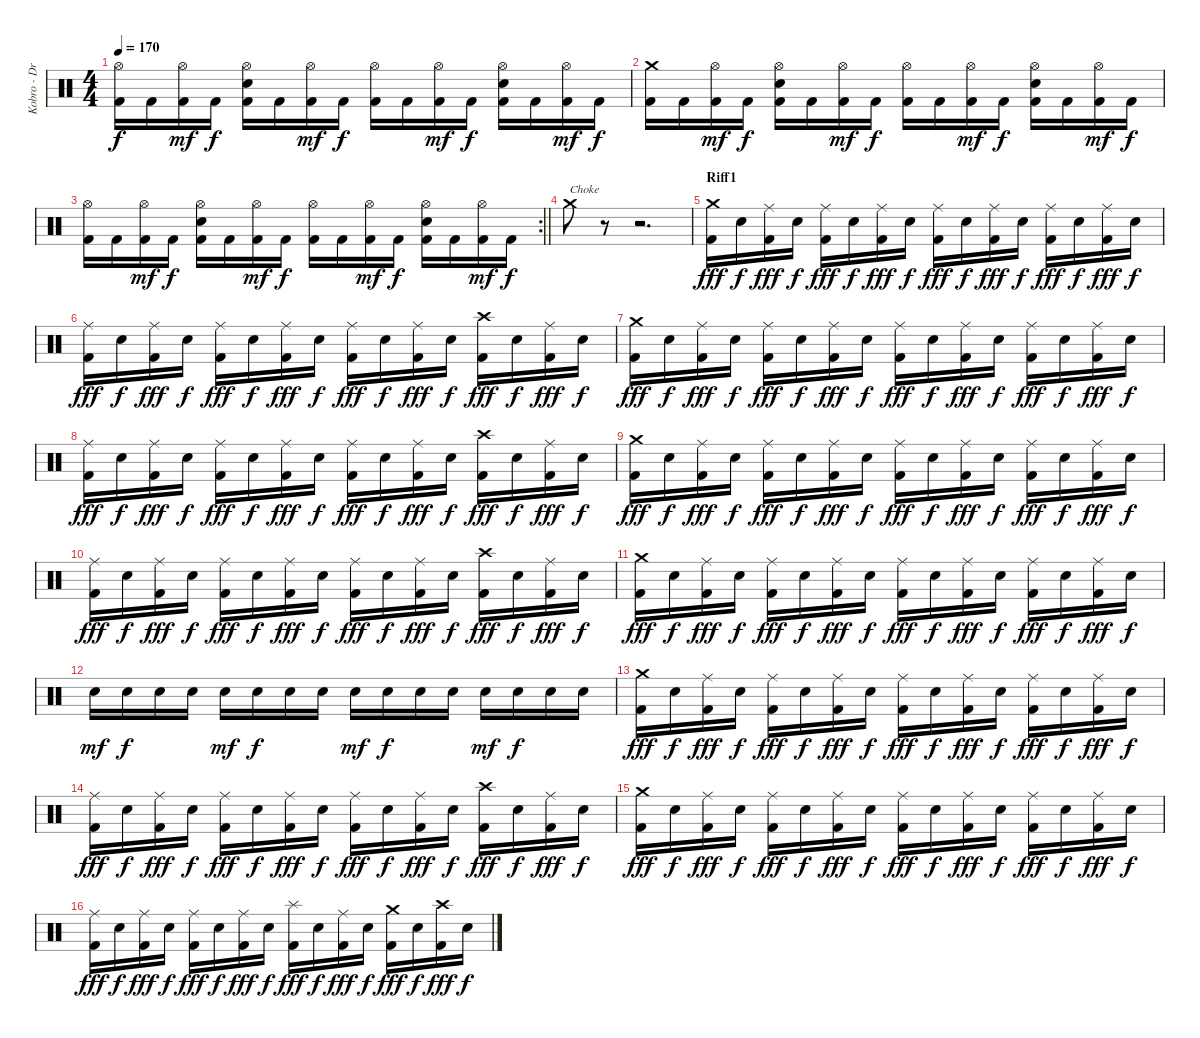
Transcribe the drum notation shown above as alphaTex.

\track ("Kobro - Drums + Percussion" "Kobro - Dr") {instrument percussion}
\staff {score}
\articulation defaults
\ts (4 4)
\tempo 170
\clef neutral
\ks c
("Hi-Hat (open)" "Kick (hit) 2").16{dy f} "Kick (hit) 2".16 ("Hi-Hat (open)" "Kick (hit) 2").16{dy mf} "Kick (hit) 2".16{dy f} ("Hi-Hat (open)" "Electric Snare (hit)" "Kick (hit) 2").16 "Kick (hit) 2".16 ("Hi-Hat (open)" "Kick (hit) 2").16{dy mf} "Kick (hit) 2".16{dy f} ("Hi-Hat (open)" "Kick (hit) 2").16 "Kick (hit) 2".16 ("Hi-Hat (open)" "Kick (hit) 2").16{dy mf} "Kick (hit) 2".16{dy f} ("Hi-Hat (open)" "Electric Snare (hit)" "Kick (hit) 2").16 "Kick (hit) 2".16 ("Hi-Hat (open)" "Kick (hit) 2").16{dy mf} "Kick (hit) 2".16{dy f} |
("Crash medium (hit)" "Kick (hit) 2").16 "Kick (hit) 2".16 ("Hi-Hat (open)" "Kick (hit) 2").16{dy mf} "Kick (hit) 2".16{dy f} ("Hi-Hat (open)" "Electric Snare (hit)" "Kick (hit) 2").16 "Kick (hit) 2".16 ("Hi-Hat (open)" "Kick (hit) 2").16{dy mf} "Kick (hit) 2".16{dy f} ("Hi-Hat (open)" "Kick (hit) 2").16 "Kick (hit) 2".16 ("Hi-Hat (open)" "Kick (hit) 2").16{dy mf} "Kick (hit) 2".16{dy f} ("Hi-Hat (open)" "Electric Snare (hit)" "Kick (hit) 2").16 "Kick (hit) 2".16 ("Hi-Hat (open)" "Kick (hit) 2").16{dy mf} "Kick (hit) 2".16{dy f} |
\rc 2
\barLineRight lightlight
("Hi-Hat (open)" "Kick (hit) 2").16 "Kick (hit) 2".16 ("Hi-Hat (open)" "Kick (hit) 2").16{dy mf} "Kick (hit) 2".16{dy f} ("Hi-Hat (open)" "Electric Snare (hit)" "Kick (hit) 2").16 "Kick (hit) 2".16 ("Hi-Hat (open)" "Kick (hit) 2").16{dy mf} "Kick (hit) 2".16{dy f} ("Hi-Hat (open)" "Kick (hit) 2").16 "Kick (hit) 2".16 ("Hi-Hat (open)" "Kick (hit) 2").16{dy mf} "Kick (hit) 2".16{dy f} ("Hi-Hat (open)" "Electric Snare (hit)" "Kick (hit) 2").16 "Kick (hit) 2".16 ("Hi-Hat (open)" "Kick (hit) 2").16{dy mf} "Kick (hit) 2".16{dy f} |
"Crash medium (hit)".8{txt "Choke"} r.8{volume 6} r.2{d volume 0} |
\section ("" "Riff1")
("Crash medium (hit)" "Kick (hit) 2").16{dy fff volume 12} "Electric Snare (hit)".16{dy f} ("Ride (middle)" "Kick (hit) 2").16{dy fff} "Electric Snare (hit)".16{dy f} ("Ride (middle)" "Kick (hit) 2").16{dy fff} "Electric Snare (hit)".16{dy f} ("Ride (middle)" "Kick (hit) 2").16{dy fff} "Electric Snare (hit)".16{dy f} ("Ride (middle)" "Kick (hit) 2").16{dy fff} "Electric Snare (hit)".16{dy f} ("Ride (middle)" "Kick (hit) 2").16{dy fff} "Electric Snare (hit)".16{dy f} ("Ride (middle)" "Kick (hit) 2").16{dy fff} "Electric Snare (hit)".16{dy f} ("Ride (middle)" "Kick (hit) 2").16{dy fff} "Electric Snare (hit)".16{dy f} |
("Ride (middle)" "Kick (hit) 2").16{dy fff} "Electric Snare (hit)".16{dy f} ("Ride (middle)" "Kick (hit) 2").16{dy fff} "Electric Snare (hit)".16{dy f} ("Ride (middle)" "Kick (hit) 2").16{dy fff} "Electric Snare (hit)".16{dy f} ("Ride (middle)" "Kick (hit) 2").16{dy fff} "Electric Snare (hit)".16{dy f} ("Ride (middle)" "Kick (hit) 2").16{dy fff} "Electric Snare (hit)".16{dy f} ("Ride (middle)" "Kick (hit) 2").16{dy fff} "Electric Snare (hit)".16{dy f} ("Crash high (hit)" "Kick (hit) 2").16{dy fff} "Electric Snare (hit)".16{dy f} ("Ride (middle)" "Kick (hit) 2").16{dy fff} "Electric Snare (hit)".16{dy f} |
("Crash medium (hit)" "Kick (hit) 2").16{dy fff} "Electric Snare (hit)".16{dy f} ("Ride (middle)" "Kick (hit) 2").16{dy fff} "Electric Snare (hit)".16{dy f} ("Ride (middle)" "Kick (hit) 2").16{dy fff} "Electric Snare (hit)".16{dy f} ("Ride (middle)" "Kick (hit) 2").16{dy fff} "Electric Snare (hit)".16{dy f} ("Ride (middle)" "Kick (hit) 2").16{dy fff} "Electric Snare (hit)".16{dy f} ("Ride (middle)" "Kick (hit) 2").16{dy fff} "Electric Snare (hit)".16{dy f} ("Ride (middle)" "Kick (hit) 2").16{dy fff} "Electric Snare (hit)".16{dy f} ("Ride (middle)" "Kick (hit) 2").16{dy fff} "Electric Snare (hit)".16{dy f} |
("Ride (middle)" "Kick (hit) 2").16{dy fff} "Electric Snare (hit)".16{dy f} ("Ride (middle)" "Kick (hit) 2").16{dy fff} "Electric Snare (hit)".16{dy f} ("Ride (middle)" "Kick (hit) 2").16{dy fff} "Electric Snare (hit)".16{dy f} ("Ride (middle)" "Kick (hit) 2").16{dy fff} "Electric Snare (hit)".16{dy f} ("Ride (middle)" "Kick (hit) 2").16{dy fff} "Electric Snare (hit)".16{dy f} ("Ride (middle)" "Kick (hit) 2").16{dy fff} "Electric Snare (hit)".16{dy f} ("Crash high (hit)" "Kick (hit) 2").16{dy fff} "Electric Snare (hit)".16{dy f} ("Ride (middle)" "Kick (hit) 2").16{dy fff} "Electric Snare (hit)".16{dy f} |
("Crash medium (hit)" "Kick (hit) 2").16{dy fff} "Electric Snare (hit)".16{dy f} ("Ride (middle)" "Kick (hit) 2").16{dy fff} "Electric Snare (hit)".16{dy f} ("Ride (middle)" "Kick (hit) 2").16{dy fff} "Electric Snare (hit)".16{dy f} ("Ride (middle)" "Kick (hit) 2").16{dy fff} "Electric Snare (hit)".16{dy f} ("Ride (middle)" "Kick (hit) 2").16{dy fff} "Electric Snare (hit)".16{dy f} ("Ride (middle)" "Kick (hit) 2").16{dy fff} "Electric Snare (hit)".16{dy f} ("Ride (middle)" "Kick (hit) 2").16{dy fff} "Electric Snare (hit)".16{dy f} ("Ride (middle)" "Kick (hit) 2").16{dy fff} "Electric Snare (hit)".16{dy f} |
("Ride (middle)" "Kick (hit) 2").16{dy fff} "Electric Snare (hit)".16{dy f} ("Ride (middle)" "Kick (hit) 2").16{dy fff} "Electric Snare (hit)".16{dy f} ("Ride (middle)" "Kick (hit) 2").16{dy fff} "Electric Snare (hit)".16{dy f} ("Ride (middle)" "Kick (hit) 2").16{dy fff} "Electric Snare (hit)".16{dy f} ("Ride (middle)" "Kick (hit) 2").16{dy fff} "Electric Snare (hit)".16{dy f} ("Ride (middle)" "Kick (hit) 2").16{dy fff} "Electric Snare (hit)".16{dy f} ("Crash high (hit)" "Kick (hit) 2").16{dy fff} "Electric Snare (hit)".16{dy f} ("Ride (middle)" "Kick (hit) 2").16{dy fff} "Electric Snare (hit)".16{dy f} |
("Crash medium (hit)" "Kick (hit) 2").16{dy fff} "Electric Snare (hit)".16{dy f} ("Ride (middle)" "Kick (hit) 2").16{dy fff} "Electric Snare (hit)".16{dy f} ("Ride (middle)" "Kick (hit) 2").16{dy fff} "Electric Snare (hit)".16{dy f} ("Ride (middle)" "Kick (hit) 2").16{dy fff} "Electric Snare (hit)".16{dy f} ("Ride (middle)" "Kick (hit) 2").16{dy fff} "Electric Snare (hit)".16{dy f} ("Ride (middle)" "Kick (hit) 2").16{dy fff} "Electric Snare (hit)".16{dy f} ("Ride (middle)" "Kick (hit) 2").16{dy fff} "Electric Snare (hit)".16{dy f} ("Ride (middle)" "Kick (hit) 2").16{dy fff} "Electric Snare (hit)".16{dy f} |
"Electric Snare (hit)".16{dy mf} "Electric Snare (hit)".16{dy f} "Electric Snare (hit)".16 "Electric Snare (hit)".16 "Electric Snare (hit)".16{dy mf} "Electric Snare (hit)".16{dy f} "Electric Snare (hit)".16 "Electric Snare (hit)".16 "Electric Snare (hit)".16{dy mf} "Electric Snare (hit)".16{dy f} "Electric Snare (hit)".16 "Electric Snare (hit)".16 "Electric Snare (hit)".16{dy mf} "Electric Snare (hit)".16{dy f} "Electric Snare (hit)".16 "Electric Snare (hit)".16 |
("Crash medium (hit)" "Kick (hit) 2").16{dy fff volume 12} "Electric Snare (hit)".16{dy f} ("Ride (middle)" "Kick (hit) 2").16{dy fff} "Electric Snare (hit)".16{dy f} ("Ride (middle)" "Kick (hit) 2").16{dy fff} "Electric Snare (hit)".16{dy f} ("Ride (middle)" "Kick (hit) 2").16{dy fff} "Electric Snare (hit)".16{dy f} ("Ride (middle)" "Kick (hit) 2").16{dy fff} "Electric Snare (hit)".16{dy f} ("Ride (middle)" "Kick (hit) 2").16{dy fff} "Electric Snare (hit)".16{dy f} ("Ride (middle)" "Kick (hit) 2").16{dy fff} "Electric Snare (hit)".16{dy f} ("Ride (middle)" "Kick (hit) 2").16{dy fff} "Electric Snare (hit)".16{dy f} |
("Ride (middle)" "Kick (hit) 2").16{dy fff} "Electric Snare (hit)".16{dy f} ("Ride (middle)" "Kick (hit) 2").16{dy fff} "Electric Snare (hit)".16{dy f} ("Ride (middle)" "Kick (hit) 2").16{dy fff} "Electric Snare (hit)".16{dy f} ("Ride (middle)" "Kick (hit) 2").16{dy fff} "Electric Snare (hit)".16{dy f} ("Ride (middle)" "Kick (hit) 2").16{dy fff} "Electric Snare (hit)".16{dy f} ("Ride (middle)" "Kick (hit) 2").16{dy fff} "Electric Snare (hit)".16{dy f} ("Crash high (hit)" "Kick (hit) 2").16{dy fff} "Electric Snare (hit)".16{dy f} ("Ride (middle)" "Kick (hit) 2").16{dy fff} "Electric Snare (hit)".16{dy f} |
("Crash medium (hit)" "Kick (hit) 2").16{dy fff} "Electric Snare (hit)".16{dy f} ("Ride (middle)" "Kick (hit) 2").16{dy fff} "Electric Snare (hit)".16{dy f} ("Ride (middle)" "Kick (hit) 2").16{dy fff} "Electric Snare (hit)".16{dy f} ("Ride (middle)" "Kick (hit) 2").16{dy fff} "Electric Snare (hit)".16{dy f} ("Ride (middle)" "Kick (hit) 2").16{dy fff} "Electric Snare (hit)".16{dy f} ("Ride (middle)" "Kick (hit) 2").16{dy fff} "Electric Snare (hit)".16{dy f} ("Ride (middle)" "Kick (hit) 2").16{dy fff} "Electric Snare (hit)".16{dy f} ("Ride (middle)" "Kick (hit) 2").16{dy fff} "Electric Snare (hit)".16{dy f} |
("Ride (middle)" "Kick (hit) 2").16{dy fff} "Electric Snare (hit)".16{dy f} ("Ride (middle)" "Kick (hit) 2").16{dy fff} "Electric Snare (hit)".16{dy f} ("Ride (middle)" "Kick (hit) 2").16{dy fff} "Electric Snare (hit)".16{dy f} ("Ride (middle)" "Kick (hit) 2").16{dy fff} "Electric Snare (hit)".16{dy f} ("Splash (hit)" "Kick (hit) 2").16{dy fff} "Electric Snare (hit)".16{dy f} ("Ride (middle)" "Kick (hit) 2").16{dy fff} "Electric Snare (hit)".16{dy f} ("Crash medium (hit)" "Kick (hit) 2").16{dy fff} "Electric Snare (hit)".16{dy f} ("Crash high (hit)" "Kick (hit) 2").16{dy fff} "Electric Snare (hit)".16{dy f}
